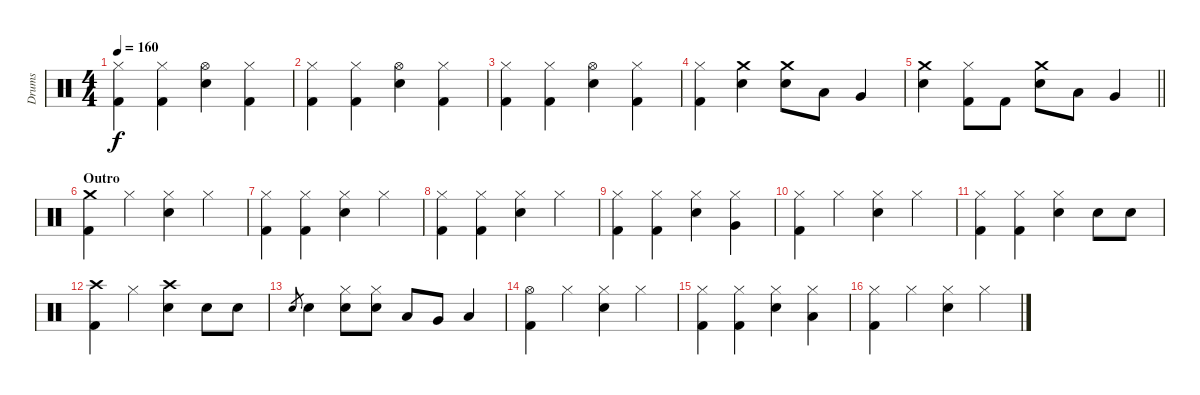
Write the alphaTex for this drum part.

\track ("Drums" "Drums") {instrument percussion}
\staff {score}
\articulation defaults
\ts (4 4)
\tempo 160
\clef neutral
\ks c
("Hi-Hat (closed)" "Kick (hit) 2").4{dy f} ("Hi-Hat (closed)" "Kick (hit) 2").4 ("Hi-Hat (open)" "Snare (hit) 2").4 ("Hi-Hat (closed)" "Kick (hit) 2").4 |
("Hi-Hat (closed)" "Kick (hit) 2").4 ("Hi-Hat (closed)" "Kick (hit) 2").4 ("Hi-Hat (open)" "Snare (hit) 2").4 ("Hi-Hat (closed)" "Kick (hit) 2").4 |
("Hi-Hat (closed)" "Kick (hit) 2").4 ("Hi-Hat (closed)" "Kick (hit) 2").4 ("Hi-Hat (open)" "Snare (hit) 2").4 ("Hi-Hat (closed)" "Kick (hit) 2").4 |
("Hi-Hat (closed)" "Kick (hit) 2").4 ("Crash medium (hit)" "Snare (hit) 2").4 ("Crash medium (hit)" "Snare (hit) 2").8 "Low Tom (hit)".8 "Very Low Tom (hit)".4 |
\barLineRight lightlight
("Crash medium (hit)" "Snare (hit) 2").4 ("Hi-Hat (closed)" "Kick (hit) 2").8 "Kick (hit) 2".8 ("Crash medium (hit)" "Snare (hit) 2").8 "Low Tom (hit)".8 "Very Low Tom (hit)".4 |
\section ("" "Outro")
("Crash medium (hit)" "Kick (hit) 2").4 "Hi-Hat (closed)".4 ("Hi-Hat (closed)" "Snare (hit) 2").4 "Hi-Hat (closed)".4 |
("Hi-Hat (closed)" "Kick (hit) 2").4 ("Hi-Hat (closed)" "Kick (hit) 2").4 ("Hi-Hat (closed)" "Snare (hit) 2").4 "Hi-Hat (closed)".4 |
("Hi-Hat (closed)" "Kick (hit) 2").4 ("Hi-Hat (closed)" "Kick (hit) 2").4 ("Hi-Hat (closed)" "Snare (hit) 2").4 "Hi-Hat (closed)".4 |
("Hi-Hat (closed)" "Kick (hit) 2").4 ("Hi-Hat (closed)" "Kick (hit) 2").4 ("Hi-Hat (closed)" "Snare (hit) 2").4 ("Hi-Hat (closed)" "Very Low Tom (hit)").4 |
("Hi-Hat (closed)" "Kick (hit) 2").4 "Hi-Hat (closed)".4 ("Hi-Hat (closed)" "Snare (hit) 2").4 "Hi-Hat (closed)".4 |
("Hi-Hat (closed)" "Kick (hit) 2").4 ("Hi-Hat (closed)" "Kick (hit) 2").4 ("Hi-Hat (closed)" "Snare (hit) 2").4 "Snare (hit) 2".8 "Snare (hit) 2".8 |
("Crash high (hit)" "Kick (hit) 2").4 "Hi-Hat (closed)".4 ("Crash high (hit)" "Snare (hit) 2").4 "Snare (hit) 2".8 "Snare (hit) 2".8 |
"Snare (hit) 2".8{gr} "Snare (hit) 2".4 ("Hi-Hat (closed)" "Snare (hit) 2").8 ("Hi-Hat (closed)" "Snare (hit) 2").8 "Low Tom (hit)".8 "Very Low Tom (hit)".8 "Low Floor Tom (hit)".4 |
("Hi-Hat (open)" "Kick (hit) 2").4 "Hi-Hat (closed)".4 ("Hi-Hat (closed)" "Snare (hit) 2").4 "Hi-Hat (closed)".4 |
("Hi-Hat (closed)" "Kick (hit) 2").4 ("Hi-Hat (closed)" "Kick (hit) 2").4 ("Hi-Hat (closed)" "Snare (hit) 2").4 ("Hi-Hat (closed)" "Low Tom (hit)").4 |
("Hi-Hat (closed)" "Kick (hit) 2").4 "Hi-Hat (closed)".4 ("Hi-Hat (closed)" "Snare (hit) 2").4 "Hi-Hat (closed)".4
